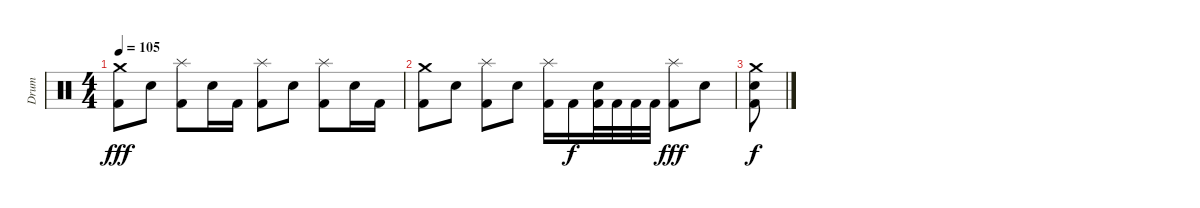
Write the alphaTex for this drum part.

\track ("Drum" "Drum") {instrument percussion}
\staff {score}
\articulation defaults
\ts (4 4)
\tempo 105
\clef neutral
\ks c
("Crash medium (hit)" "Kick (hit) 2").8{dy fff} "Electric Snare (hit)".8 ("Splash (hit)" "Kick (hit) 2").8 "Electric Snare (hit)".16 "Kick (hit) 2".16 ("Splash (hit)" "Kick (hit) 2").8 "Electric Snare (hit)".8 ("Splash (hit)" "Kick (hit) 2").8 "Electric Snare (hit)".16 "Kick (hit) 2".16 |
("Crash medium (hit)" "Kick (hit) 2").8 "Electric Snare (hit)".8 ("Splash (hit)" "Kick (hit) 2").8 "Electric Snare (hit)".8 ("Splash (hit)" "Kick (hit) 2").16 "Kick (hit) 2".16{dy f} ("Electric Snare (hit)" "Kick (hit) 2").32 "Kick (hit) 2".32 "Kick (hit) 2".32 "Kick (hit) 2".32 ("Splash (hit)" "Kick (hit) 2").8{dy fff} "Electric Snare (hit)".8 |
("Crash medium (hit)" "Electric Snare (hit)" "Kick (hit) 2").8{dy f}
